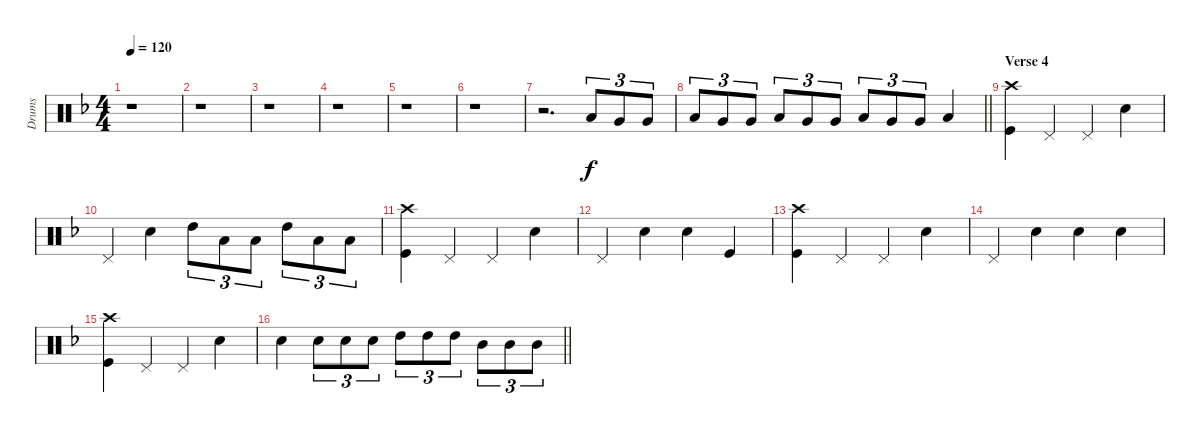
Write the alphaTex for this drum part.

\track ("Drums" "Drums") {instrument percussion}
\staff {score}
\articulation defaults
\ts (4 4)
\tempo 120
\clef neutral
\ks f
r.1{dy f} |
r.1 |
r.1 |
r.1 |
r.1 |
r.1 |
r.2{d} "Low Tom (hit)".8{tu (3 2)} "Very Low Tom (hit)".8{tu (3 2)} "Very Low Tom (hit)".8{tu (3 2)} |
\barLineRight lightlight "Low Tom (hit)".8{tu (3 2)} "Very Low Tom (hit)".8{tu (3 2)} "Very Low Tom (hit)".8{tu (3 2)} "Low Tom (hit)".8{tu (3 2)} "Very Low Tom (hit)".8{tu (3 2)} "Very Low Tom (hit)".8{tu (3 2)} "Low Tom (hit)".8{tu (3 2)} "Very Low Tom (hit)".8{tu (3 2)} "Very Low Tom (hit)".8{tu (3 2)} "Low Tom (hit)".4
|
\section ("" "Verse 4")
("Crash high (hit)" "Kick (hit)").4 "Pedal Hi-Hat (hit)".4 "Pedal Hi-Hat (hit)".4 "Snare (hit) 2".4 |
"Pedal Hi-Hat (hit)".4 "Snare (hit) 2".4 "High Tom (hit)".8{tu (3 2)} "Low Floor Tom (hit)".8{tu (3 2)} "Low Floor Tom (hit)".8{tu (3 2)} "High Tom (hit)".8{tu (3 2)} "Low Floor Tom (hit)".8{tu (3 2)} "Low Floor Tom (hit)".8{tu (3 2)} |
("Crash high (hit)" "Kick (hit)").4 "Pedal Hi-Hat (hit)".4 "Pedal Hi-Hat (hit)".4 "Snare (hit) 2".4 |
"Pedal Hi-Hat (hit)".4 "Snare (hit) 2".4 "Snare (hit) 2".4 "Kick (hit)".4 |
("Crash high (hit)" "Kick (hit)").4 "Pedal Hi-Hat (hit)".4 "Pedal Hi-Hat (hit)".4 "Snare (hit) 2".4 |
"Pedal Hi-Hat (hit)".4 "Snare (hit) 2".4 "Snare (hit) 2".4 "Snare (hit) 2".4 |
("Crash high (hit)" "Kick (hit)").4 "Pedal Hi-Hat (hit)".4 "Pedal Hi-Hat (hit)".4 "Snare (hit) 2".4 |
\barLineRight lightlight "Snare (hit) 2".4 "Snare (hit) 2".8{tu (3 2)} "Snare (hit) 2".8{tu (3 2)} "Snare (hit) 2".8{tu (3 2)} "High Tom (hit)".8{tu (3 2)} "High Tom (hit)".8{tu (3 2)} "High Tom (hit)".8{tu (3 2)} "Mid Tom (hit)".8{tu (3 2)} "Mid Tom (hit)".8{tu (3 2)} "Mid Tom (hit)".8{tu (3 2)}
